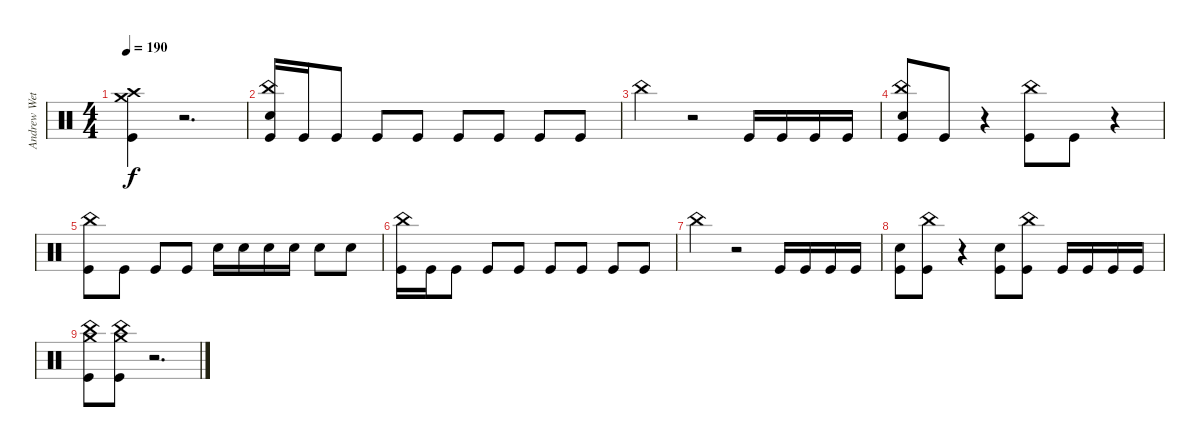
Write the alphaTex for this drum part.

\track ("Andrew Wetzel" "Andrew Wet") {instrument percussion}
\staff {score}
\articulation defaults
\ts (4 4)
\tempo 190
\clef neutral
\ks c
("Crash medium (hit)" "Crash high (hit)" "Kick (hit)").4{dy f volume 13} r.2{d} |
("China (hit)" "Snare (hit) 2" "Kick (hit)").16 "Kick (hit)".16 "Kick (hit)".8 "Kick (hit)".8 "Kick (hit)".8 "Kick (hit)".8 "Kick (hit)".8 "Kick (hit)".8 "Kick (hit)".8 |
"China (hit)".4 r.2 "Kick (hit)".16 "Kick (hit)".16 "Kick (hit)".16 "Kick (hit)".16 |
("China (hit)" "Snare (hit) 2" "Kick (hit)").8 "Kick (hit)".8 r.4 ("China (hit)" "Kick (hit)").8 "Kick (hit)".8 r.4 |
("China (hit)" "Kick (hit)").8 "Kick (hit)".8 "Kick (hit)".8 "Kick (hit)".8 "Snare (hit) 2".16 "Snare (hit) 2".16 "Snare (hit) 2".16 "Snare (hit) 2".16 "Snare (hit) 2".8 "Snare (hit) 2".8 |
("China (hit)" "Kick (hit)").16 "Kick (hit)".16 "Kick (hit)".8 "Kick (hit)".8 "Kick (hit)".8 "Kick (hit)".8 "Kick (hit)".8 "Kick (hit)".8 "Kick (hit)".8 |
"China (hit)".4 r.2 "Kick (hit)".16 "Kick (hit)".16 "Kick (hit)".16 "Kick (hit)".16 |
("Snare (hit) 2" "Kick (hit)").8 ("China (hit)" "Kick (hit)").8 r.4 ("Snare (hit) 2" "Kick (hit)").8 ("China (hit)" "Kick (hit)").8 "Kick (hit)".16 "Kick (hit)".16 "Kick (hit)".16 "Kick (hit)".16 |
("Crash medium (hit)" "China (hit)" "Kick (hit)").8 ("Crash medium (hit)" "China (hit)" "Kick (hit)").8 r.2{d}
